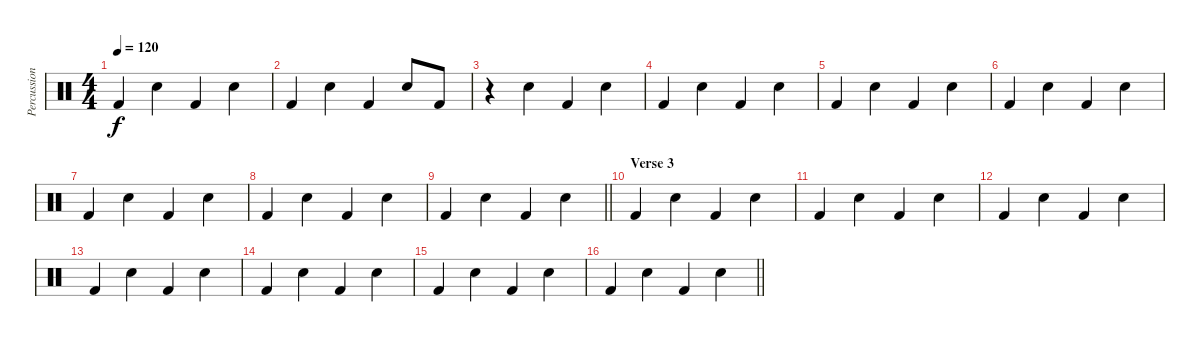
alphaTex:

\track ("Percussion" "Percussion") {instrument percussion}
\staff {score}
\articulation defaults
\ts (4 4)
\tempo 120
\clef neutral
\ks c "Kick (hit) 2".4{dy f} "Snare (hit) 2".4 "Kick (hit) 2".4 "Snare (hit) 2".4
|
"Kick (hit) 2".4 "Snare (hit) 2".4 "Kick (hit) 2".4 "Snare (hit) 2".8 "Kick (hit) 2".8 |
r.4 "Snare (hit) 2".4 "Kick (hit) 2".4 "Snare (hit) 2".4 |
"Kick (hit) 2".4 "Snare (hit) 2".4 "Kick (hit) 2".4 "Snare (hit) 2".4 |
"Kick (hit) 2".4 "Snare (hit) 2".4 "Kick (hit) 2".4 "Snare (hit) 2".4 |
"Kick (hit) 2".4 "Snare (hit) 2".4 "Kick (hit) 2".4 "Snare (hit) 2".4 |
"Kick (hit) 2".4 "Snare (hit) 2".4 "Kick (hit) 2".4 "Snare (hit) 2".4 |
"Kick (hit) 2".4 "Snare (hit) 2".4 "Kick (hit) 2".4 "Snare (hit) 2".4 |
\barLineRight lightlight "Kick (hit) 2".4 "Snare (hit) 2".4 "Kick (hit) 2".4 "Snare (hit) 2".4
|
\section ("" "Verse 3")
"Kick (hit) 2".4 "Snare (hit) 2".4 "Kick (hit) 2".4 "Snare (hit) 2".4 |
"Kick (hit) 2".4 "Snare (hit) 2".4 "Kick (hit) 2".4 "Snare (hit) 2".4 |
"Kick (hit) 2".4 "Snare (hit) 2".4 "Kick (hit) 2".4 "Snare (hit) 2".4 |
"Kick (hit) 2".4 "Snare (hit) 2".4 "Kick (hit) 2".4 "Snare (hit) 2".4 |
"Kick (hit) 2".4 "Snare (hit) 2".4 "Kick (hit) 2".4 "Snare (hit) 2".4 |
"Kick (hit) 2".4 "Snare (hit) 2".4 "Kick (hit) 2".4 "Snare (hit) 2".4 |
\barLineRight lightlight "Kick (hit) 2".4 "Snare (hit) 2".4 "Kick (hit) 2".4 "Snare (hit) 2".4
